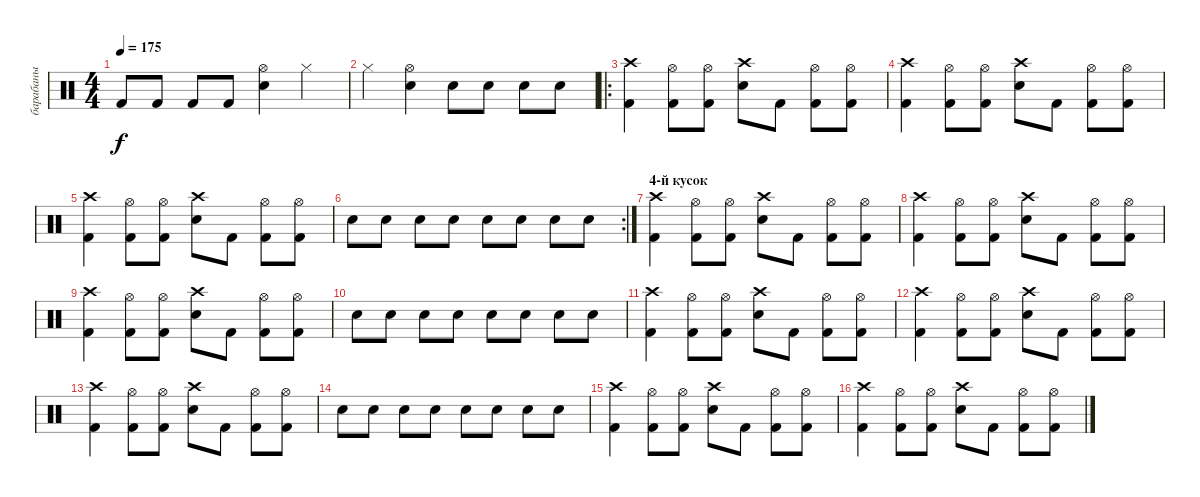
\track ("барабаны" "барабаны") {instrument percussion}
\staff {score}
\articulation defaults
\ts (4 4)
\tempo 175
\clef neutral
\ks c "Kick (hit) 2".8{dy f} "Kick (hit) 2".8 "Kick (hit) 2".8 "Kick (hit) 2".8
("Hi-Hat (open)" "Snare (hit) 2").4 "Hi-Hat (closed)".4 |
"Hi-Hat (closed)".4 ("Hi-Hat (open)" "Snare (hit) 2").4 "Snare (hit) 2".8 "Snare (hit) 2".8 "Snare (hit) 2".8 "Snare (hit) 2".8 |
\ro
("Crash high (hit)" "Kick (hit) 2").4 ("Hi-Hat (open)" "Kick (hit) 2").8 ("Hi-Hat (open)" "Kick (hit) 2").8 ("Crash high (hit)" "Snare (hit) 2").8 "Kick (hit) 2".8 ("Hi-Hat (open)" "Kick (hit) 2").8 ("Hi-Hat (open)" "Kick (hit) 2").8 |
("Crash high (hit)" "Kick (hit) 2").4 ("Hi-Hat (open)" "Kick (hit) 2").8 ("Hi-Hat (open)" "Kick (hit) 2").8 ("Crash high (hit)" "Snare (hit) 2").8 "Kick (hit) 2".8 ("Hi-Hat (open)" "Kick (hit) 2").8 ("Hi-Hat (open)" "Kick (hit) 2").8 |
("Crash high (hit)" "Kick (hit) 2").4 ("Hi-Hat (open)" "Kick (hit) 2").8 ("Hi-Hat (open)" "Kick (hit) 2").8 ("Crash high (hit)" "Snare (hit) 2").8 "Kick (hit) 2".8 ("Hi-Hat (open)" "Kick (hit) 2").8 ("Hi-Hat (open)" "Kick (hit) 2").8 |
\rc 2 "Snare (hit) 2".8 "Snare (hit) 2".8 "Snare (hit) 2".8 "Snare (hit) 2".8 "Snare (hit) 2".8 "Snare (hit) 2".8 "Snare (hit) 2".8 "Snare (hit) 2".8
|
\section ("" "4-й кусок")
("Crash high (hit)" "Kick (hit) 2").4 ("Hi-Hat (open)" "Kick (hit) 2").8 ("Hi-Hat (open)" "Kick (hit) 2").8 ("Crash high (hit)" "Snare (hit) 2").8 "Kick (hit) 2".8 ("Hi-Hat (open)" "Kick (hit) 2").8 ("Hi-Hat (open)" "Kick (hit) 2").8 |
("Crash high (hit)" "Kick (hit) 2").4 ("Hi-Hat (open)" "Kick (hit) 2").8 ("Hi-Hat (open)" "Kick (hit) 2").8 ("Crash high (hit)" "Snare (hit) 2").8 "Kick (hit) 2".8 ("Hi-Hat (open)" "Kick (hit) 2").8 ("Hi-Hat (open)" "Kick (hit) 2").8 |
("Crash high (hit)" "Kick (hit) 2").4 ("Hi-Hat (open)" "Kick (hit) 2").8 ("Hi-Hat (open)" "Kick (hit) 2").8 ("Crash high (hit)" "Snare (hit) 2").8 "Kick (hit) 2".8 ("Hi-Hat (open)" "Kick (hit) 2").8 ("Hi-Hat (open)" "Kick (hit) 2").8 |
"Snare (hit) 2".8 "Snare (hit) 2".8 "Snare (hit) 2".8 "Snare (hit) 2".8 "Snare (hit) 2".8 "Snare (hit) 2".8 "Snare (hit) 2".8 "Snare (hit) 2".8 |
("Crash high (hit)" "Kick (hit) 2").4 ("Hi-Hat (open)" "Kick (hit) 2").8 ("Hi-Hat (open)" "Kick (hit) 2").8 ("Crash high (hit)" "Snare (hit) 2").8 "Kick (hit) 2".8 ("Hi-Hat (open)" "Kick (hit) 2").8 ("Hi-Hat (open)" "Kick (hit) 2").8 |
("Crash high (hit)" "Kick (hit) 2").4 ("Hi-Hat (open)" "Kick (hit) 2").8 ("Hi-Hat (open)" "Kick (hit) 2").8 ("Crash high (hit)" "Snare (hit) 2").8 "Kick (hit) 2".8 ("Hi-Hat (open)" "Kick (hit) 2").8 ("Hi-Hat (open)" "Kick (hit) 2").8 |
("Crash high (hit)" "Kick (hit) 2").4 ("Hi-Hat (open)" "Kick (hit) 2").8 ("Hi-Hat (open)" "Kick (hit) 2").8 ("Crash high (hit)" "Snare (hit) 2").8 "Kick (hit) 2".8 ("Hi-Hat (open)" "Kick (hit) 2").8 ("Hi-Hat (open)" "Kick (hit) 2").8 |
"Snare (hit) 2".8 "Snare (hit) 2".8 "Snare (hit) 2".8 "Snare (hit) 2".8 "Snare (hit) 2".8 "Snare (hit) 2".8 "Snare (hit) 2".8 "Snare (hit) 2".8 |
("Crash high (hit)" "Kick (hit) 2").4 ("Hi-Hat (open)" "Kick (hit) 2").8 ("Hi-Hat (open)" "Kick (hit) 2").8 ("Crash high (hit)" "Snare (hit) 2").8 "Kick (hit) 2".8 ("Hi-Hat (open)" "Kick (hit) 2").8 ("Hi-Hat (open)" "Kick (hit) 2").8 |
("Crash high (hit)" "Kick (hit) 2").4 ("Hi-Hat (open)" "Kick (hit) 2").8 ("Hi-Hat (open)" "Kick (hit) 2").8 ("Crash high (hit)" "Snare (hit) 2").8 "Kick (hit) 2".8 ("Hi-Hat (open)" "Kick (hit) 2").8 ("Hi-Hat (open)" "Kick (hit) 2").8
